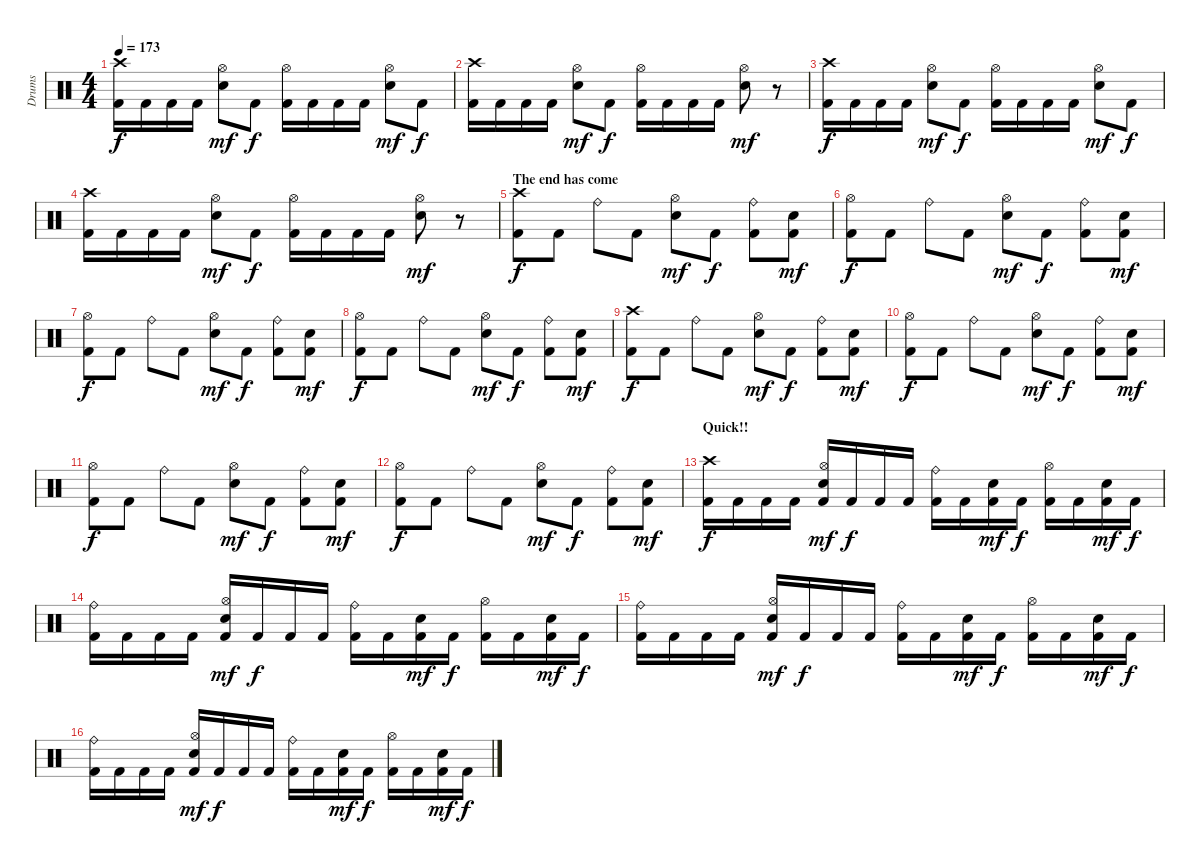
\track ("Drums" "Drums") {instrument percussion}
\staff {score}
\articulation defaults
\ts (4 4)
\tempo 173
\clef neutral
\ks c
("Crash high (hit)" "Kick (hit) 2").16{dy f} "Kick (hit) 2".16 "Kick (hit) 2".16 "Kick (hit) 2".16 ("Hi-Hat (open)" "Snare (hit) 2").8{dy mf} "Kick (hit) 2".8{dy f} ("Hi-Hat (open)" "Kick (hit) 2").16 "Kick (hit) 2".16 "Kick (hit) 2".16 "Kick (hit) 2".16 ("Hi-Hat (open)" "Snare (hit) 2").8{dy mf} "Kick (hit) 2".8{dy f} |
("Crash high (hit)" "Kick (hit) 2").16 "Kick (hit) 2".16 "Kick (hit) 2".16 "Kick (hit) 2".16 ("Hi-Hat (open)" "Snare (hit) 2").8{dy mf} "Kick (hit) 2".8{dy f} ("Hi-Hat (open)" "Kick (hit) 2").16 "Kick (hit) 2".16 "Kick (hit) 2".16 "Kick (hit) 2".16 ("Hi-Hat (open)" "Snare (hit) 2").8{dy mf} r.8 |
("Crash high (hit)" "Kick (hit) 2").16{dy f} "Kick (hit) 2".16 "Kick (hit) 2".16 "Kick (hit) 2".16 ("Hi-Hat (open)" "Snare (hit) 2").8{dy mf} "Kick (hit) 2".8{dy f} ("Hi-Hat (open)" "Kick (hit) 2").16 "Kick (hit) 2".16 "Kick (hit) 2".16 "Kick (hit) 2".16 ("Hi-Hat (open)" "Snare (hit) 2").8{dy mf} "Kick (hit) 2".8{dy f} |
("Crash high (hit)" "Kick (hit) 2").16 "Kick (hit) 2".16 "Kick (hit) 2".16 "Kick (hit) 2".16 ("Hi-Hat (open)" "Snare (hit) 2").8{dy mf} "Kick (hit) 2".8{dy f} ("Hi-Hat (open)" "Kick (hit) 2").16 "Kick (hit) 2".16 "Kick (hit) 2".16 "Kick (hit) 2".16 ("Hi-Hat (open)" "Snare (hit) 2").8{dy mf} r.8 |
\section ("" "The end has come")
("Crash high (hit)" "Kick (hit) 2").8{dy f} "Kick (hit) 2".8 "Ride (bell)".8 "Kick (hit) 2".8 ("Hi-Hat (open)" "Snare (hit) 2").8{dy mf} "Kick (hit) 2".8{dy f} ("Ride (bell)" "Kick (hit) 2").8 ("Snare (hit) 2" "Kick (hit) 2").8{dy mf} |
("Hi-Hat (open)" "Kick (hit) 2").8{dy f} "Kick (hit) 2".8 "Ride (bell)".8 "Kick (hit) 2".8 ("Hi-Hat (open)" "Snare (hit) 2").8{dy mf} "Kick (hit) 2".8{dy f} ("Ride (bell)" "Kick (hit) 2").8 ("Snare (hit) 2" "Kick (hit) 2").8{dy mf} |
("Hi-Hat (open)" "Kick (hit) 2").8{dy f} "Kick (hit) 2".8 "Ride (bell)".8 "Kick (hit) 2".8 ("Hi-Hat (open)" "Snare (hit) 2").8{dy mf} "Kick (hit) 2".8{dy f} ("Ride (bell)" "Kick (hit) 2").8 ("Snare (hit) 2" "Kick (hit) 2").8{dy mf} |
("Hi-Hat (open)" "Kick (hit) 2").8{dy f} "Kick (hit) 2".8 "Ride (bell)".8 "Kick (hit) 2".8 ("Hi-Hat (open)" "Snare (hit) 2").8{dy mf} "Kick (hit) 2".8{dy f} ("Ride (bell)" "Kick (hit) 2").8 ("Snare (hit) 2" "Kick (hit) 2").8{dy mf} |
("Crash high (hit)" "Kick (hit) 2").8{dy f} "Kick (hit) 2".8 "Ride (bell)".8 "Kick (hit) 2".8 ("Hi-Hat (open)" "Snare (hit) 2").8{dy mf} "Kick (hit) 2".8{dy f} ("Ride (bell)" "Kick (hit) 2").8 ("Snare (hit) 2" "Kick (hit) 2").8{dy mf} |
("Hi-Hat (open)" "Kick (hit) 2").8{dy f} "Kick (hit) 2".8 "Ride (bell)".8 "Kick (hit) 2".8 ("Hi-Hat (open)" "Snare (hit) 2").8{dy mf} "Kick (hit) 2".8{dy f} ("Ride (bell)" "Kick (hit) 2").8 ("Snare (hit) 2" "Kick (hit) 2").8{dy mf} |
("Hi-Hat (open)" "Kick (hit) 2").8{dy f} "Kick (hit) 2".8 "Ride (bell)".8 "Kick (hit) 2".8 ("Hi-Hat (open)" "Snare (hit) 2").8{dy mf} "Kick (hit) 2".8{dy f} ("Ride (bell)" "Kick (hit) 2").8 ("Snare (hit) 2" "Kick (hit) 2").8{dy mf} |
("Hi-Hat (open)" "Kick (hit) 2").8{dy f} "Kick (hit) 2".8 "Ride (bell)".8 "Kick (hit) 2".8 ("Hi-Hat (open)" "Snare (hit) 2").8{dy mf} "Kick (hit) 2".8{dy f} ("Ride (bell)" "Kick (hit) 2").8 ("Snare (hit) 2" "Kick (hit) 2").8{dy mf} |
\section ("" "Quick!!")
("Crash high (hit)" "Kick (hit) 2").16{dy f} "Kick (hit) 2".16 "Kick (hit) 2".16 "Kick (hit) 2".16 ("Hi-Hat (open)" "Snare (hit) 2" "Kick (hit) 2").16{dy mf} "Kick (hit) 2".16{dy f} "Kick (hit) 2".16 "Kick (hit) 2".16 ("Ride (bell)" "Kick (hit) 2").16 "Kick (hit) 2".16 ("Snare (hit) 2" "Kick (hit) 2").16{dy mf} "Kick (hit) 2".16{dy f} ("Hi-Hat (open)" "Kick (hit) 2").16 "Kick (hit) 2".16 ("Snare (hit) 2" "Kick (hit) 2").16{dy mf} "Kick (hit) 2".16{dy f} |
("Ride (bell)" "Kick (hit) 2").16 "Kick (hit) 2".16 "Kick (hit) 2".16 "Kick (hit) 2".16 ("Hi-Hat (open)" "Snare (hit) 2" "Kick (hit) 2").16{dy mf} "Kick (hit) 2".16{dy f} "Kick (hit) 2".16 "Kick (hit) 2".16 ("Ride (bell)" "Kick (hit) 2").16 "Kick (hit) 2".16 ("Snare (hit) 2" "Kick (hit) 2").16{dy mf} "Kick (hit) 2".16{dy f} ("Hi-Hat (open)" "Kick (hit) 2").16 "Kick (hit) 2".16 ("Snare (hit) 2" "Kick (hit) 2").16{dy mf} "Kick (hit) 2".16{dy f} |
("Ride (bell)" "Kick (hit) 2").16 "Kick (hit) 2".16 "Kick (hit) 2".16 "Kick (hit) 2".16 ("Hi-Hat (open)" "Snare (hit) 2" "Kick (hit) 2").16{dy mf} "Kick (hit) 2".16{dy f} "Kick (hit) 2".16 "Kick (hit) 2".16 ("Ride (bell)" "Kick (hit) 2").16 "Kick (hit) 2".16 ("Snare (hit) 2" "Kick (hit) 2").16{dy mf} "Kick (hit) 2".16{dy f} ("Hi-Hat (open)" "Kick (hit) 2").16 "Kick (hit) 2".16 ("Snare (hit) 2" "Kick (hit) 2").16{dy mf} "Kick (hit) 2".16{dy f} |
("Ride (bell)" "Kick (hit) 2").16 "Kick (hit) 2".16 "Kick (hit) 2".16 "Kick (hit) 2".16 ("Hi-Hat (open)" "Snare (hit) 2" "Kick (hit) 2").16{dy mf} "Kick (hit) 2".16{dy f} "Kick (hit) 2".16 "Kick (hit) 2".16 ("Ride (bell)" "Kick (hit) 2").16 "Kick (hit) 2".16 ("Snare (hit) 2" "Kick (hit) 2").16{dy mf} "Kick (hit) 2".16{dy f} ("Hi-Hat (open)" "Kick (hit) 2").16 "Kick (hit) 2".16 ("Snare (hit) 2" "Kick (hit) 2").16{dy mf} "Kick (hit) 2".16{dy f}
